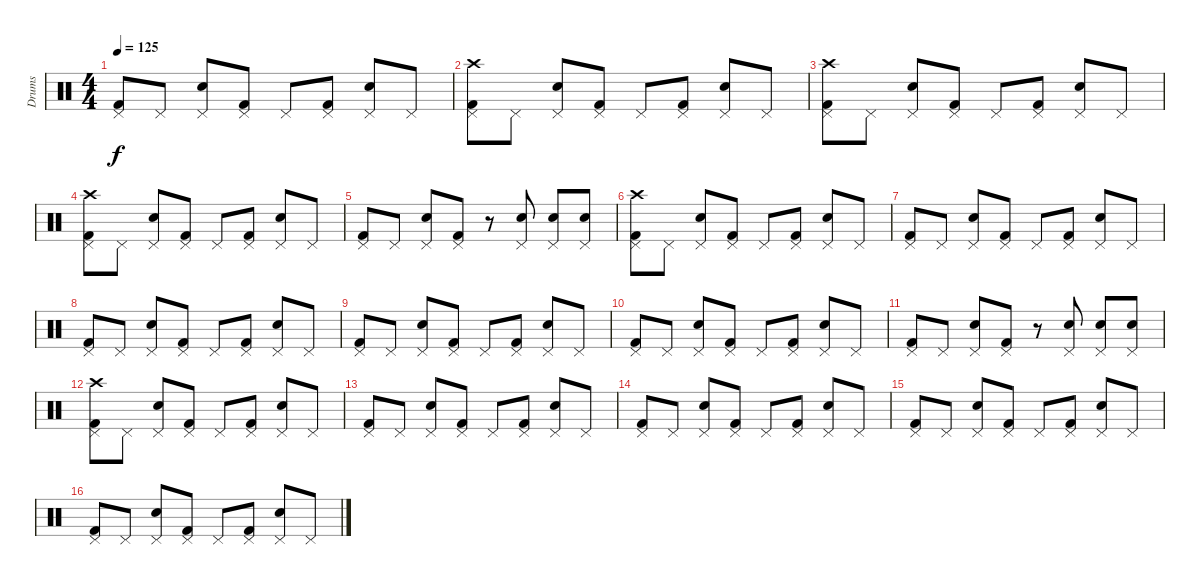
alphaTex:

\track ("Drums" "Drums") {instrument percussion}
\staff {score}
\articulation defaults
\ts (4 4)
\tempo 125
\clef neutral
\ks c
("Kick (hit) 2" "Pedal Hi-Hat (hit)").8{dy f} "Pedal Hi-Hat (hit)".8 ("Pedal Hi-Hat (hit)" "Snare (hit) 2").8 ("Pedal Hi-Hat (hit)" "Kick (hit) 2").8 "Pedal Hi-Hat (hit)".8 ("Kick (hit) 2" "Pedal Hi-Hat (hit)").8 ("Snare (hit) 2" "Pedal Hi-Hat (hit)").8 "Pedal Hi-Hat (hit)".8 |
("Kick (hit) 2" "Pedal Hi-Hat (hit)" "Crash high (hit)").8 "Pedal Hi-Hat (hit)".8 ("Pedal Hi-Hat (hit)" "Snare (hit) 2").8 ("Pedal Hi-Hat (hit)" "Kick (hit) 2").8 "Pedal Hi-Hat (hit)".8 ("Kick (hit) 2" "Pedal Hi-Hat (hit)").8 ("Snare (hit) 2" "Pedal Hi-Hat (hit)").8 "Pedal Hi-Hat (hit)".8 |
("Kick (hit) 2" "Pedal Hi-Hat (hit)" "Crash high (hit)").8 "Pedal Hi-Hat (hit)".8 ("Pedal Hi-Hat (hit)" "Snare (hit) 2").8 ("Pedal Hi-Hat (hit)" "Kick (hit) 2").8 "Pedal Hi-Hat (hit)".8 ("Kick (hit) 2" "Pedal Hi-Hat (hit)").8 ("Snare (hit) 2" "Pedal Hi-Hat (hit)").8 "Pedal Hi-Hat (hit)".8 |
("Kick (hit) 2" "Pedal Hi-Hat (hit)" "Crash high (hit)").8 "Pedal Hi-Hat (hit)".8 ("Pedal Hi-Hat (hit)" "Snare (hit) 2").8 ("Pedal Hi-Hat (hit)" "Kick (hit) 2").8 "Pedal Hi-Hat (hit)".8 ("Kick (hit) 2" "Pedal Hi-Hat (hit)").8 ("Snare (hit) 2" "Pedal Hi-Hat (hit)").8 "Pedal Hi-Hat (hit)".8 |
("Kick (hit) 2" "Pedal Hi-Hat (hit)").8 "Pedal Hi-Hat (hit)".8 ("Pedal Hi-Hat (hit)" "Snare (hit) 2").8 ("Pedal Hi-Hat (hit)" "Kick (hit) 2").8 r.8 ("Snare (hit) 2" "Pedal Hi-Hat (hit)").8 ("Snare (hit) 2" "Pedal Hi-Hat (hit)").8 ("Snare (hit) 2" "Pedal Hi-Hat (hit)").8 |
("Kick (hit) 2" "Pedal Hi-Hat (hit)" "Crash high (hit)").8 "Pedal Hi-Hat (hit)".8 ("Pedal Hi-Hat (hit)" "Snare (hit) 2").8 ("Pedal Hi-Hat (hit)" "Kick (hit) 2").8 "Pedal Hi-Hat (hit)".8 ("Kick (hit) 2" "Pedal Hi-Hat (hit)").8 ("Snare (hit) 2" "Pedal Hi-Hat (hit)").8 "Pedal Hi-Hat (hit)".8 |
("Kick (hit) 2" "Pedal Hi-Hat (hit)").8 "Pedal Hi-Hat (hit)".8 ("Pedal Hi-Hat (hit)" "Snare (hit) 2").8 ("Pedal Hi-Hat (hit)" "Kick (hit) 2").8 "Pedal Hi-Hat (hit)".8 ("Kick (hit) 2" "Pedal Hi-Hat (hit)").8 ("Snare (hit) 2" "Pedal Hi-Hat (hit)").8 "Pedal Hi-Hat (hit)".8 |
("Kick (hit) 2" "Pedal Hi-Hat (hit)").8 "Pedal Hi-Hat (hit)".8 ("Pedal Hi-Hat (hit)" "Snare (hit) 2").8 ("Pedal Hi-Hat (hit)" "Kick (hit) 2").8 "Pedal Hi-Hat (hit)".8 ("Kick (hit) 2" "Pedal Hi-Hat (hit)").8 ("Snare (hit) 2" "Pedal Hi-Hat (hit)").8 "Pedal Hi-Hat (hit)".8 |
("Kick (hit) 2" "Pedal Hi-Hat (hit)").8 "Pedal Hi-Hat (hit)".8 ("Pedal Hi-Hat (hit)" "Snare (hit) 2").8 ("Pedal Hi-Hat (hit)" "Kick (hit) 2").8 "Pedal Hi-Hat (hit)".8 ("Kick (hit) 2" "Pedal Hi-Hat (hit)").8 ("Snare (hit) 2" "Pedal Hi-Hat (hit)").8 "Pedal Hi-Hat (hit)".8 |
("Kick (hit) 2" "Pedal Hi-Hat (hit)").8 "Pedal Hi-Hat (hit)".8 ("Pedal Hi-Hat (hit)" "Snare (hit) 2").8 ("Pedal Hi-Hat (hit)" "Kick (hit) 2").8 "Pedal Hi-Hat (hit)".8 ("Kick (hit) 2" "Pedal Hi-Hat (hit)").8 ("Snare (hit) 2" "Pedal Hi-Hat (hit)").8 "Pedal Hi-Hat (hit)".8 |
("Kick (hit) 2" "Pedal Hi-Hat (hit)").8 "Pedal Hi-Hat (hit)".8 ("Pedal Hi-Hat (hit)" "Snare (hit) 2").8 ("Pedal Hi-Hat (hit)" "Kick (hit) 2").8 r.8 ("Snare (hit) 2" "Pedal Hi-Hat (hit)").8 ("Snare (hit) 2" "Pedal Hi-Hat (hit)").8 ("Snare (hit) 2" "Pedal Hi-Hat (hit)").8 |
("Kick (hit) 2" "Pedal Hi-Hat (hit)" "Crash high (hit)").8 "Pedal Hi-Hat (hit)".8 ("Pedal Hi-Hat (hit)" "Snare (hit) 2").8 ("Pedal Hi-Hat (hit)" "Kick (hit) 2").8 "Pedal Hi-Hat (hit)".8 ("Kick (hit) 2" "Pedal Hi-Hat (hit)").8 ("Snare (hit) 2" "Pedal Hi-Hat (hit)").8 "Pedal Hi-Hat (hit)".8 |
("Kick (hit) 2" "Pedal Hi-Hat (hit)").8 "Pedal Hi-Hat (hit)".8 ("Pedal Hi-Hat (hit)" "Snare (hit) 2").8 ("Pedal Hi-Hat (hit)" "Kick (hit) 2").8 "Pedal Hi-Hat (hit)".8 ("Kick (hit) 2" "Pedal Hi-Hat (hit)").8 ("Snare (hit) 2" "Pedal Hi-Hat (hit)").8 "Pedal Hi-Hat (hit)".8 |
("Kick (hit) 2" "Pedal Hi-Hat (hit)").8 "Pedal Hi-Hat (hit)".8 ("Pedal Hi-Hat (hit)" "Snare (hit) 2").8 ("Pedal Hi-Hat (hit)" "Kick (hit) 2").8 "Pedal Hi-Hat (hit)".8 ("Kick (hit) 2" "Pedal Hi-Hat (hit)").8 ("Snare (hit) 2" "Pedal Hi-Hat (hit)").8 "Pedal Hi-Hat (hit)".8 |
("Kick (hit) 2" "Pedal Hi-Hat (hit)").8 "Pedal Hi-Hat (hit)".8 ("Pedal Hi-Hat (hit)" "Snare (hit) 2").8 ("Pedal Hi-Hat (hit)" "Kick (hit) 2").8 "Pedal Hi-Hat (hit)".8 ("Kick (hit) 2" "Pedal Hi-Hat (hit)").8 ("Snare (hit) 2" "Pedal Hi-Hat (hit)").8 "Pedal Hi-Hat (hit)".8 |
("Kick (hit) 2" "Pedal Hi-Hat (hit)").8 "Pedal Hi-Hat (hit)".8 ("Pedal Hi-Hat (hit)" "Snare (hit) 2").8 ("Pedal Hi-Hat (hit)" "Kick (hit) 2").8 "Pedal Hi-Hat (hit)".8 ("Kick (hit) 2" "Pedal Hi-Hat (hit)").8 ("Snare (hit) 2" "Pedal Hi-Hat (hit)").8 "Pedal Hi-Hat (hit)".8
